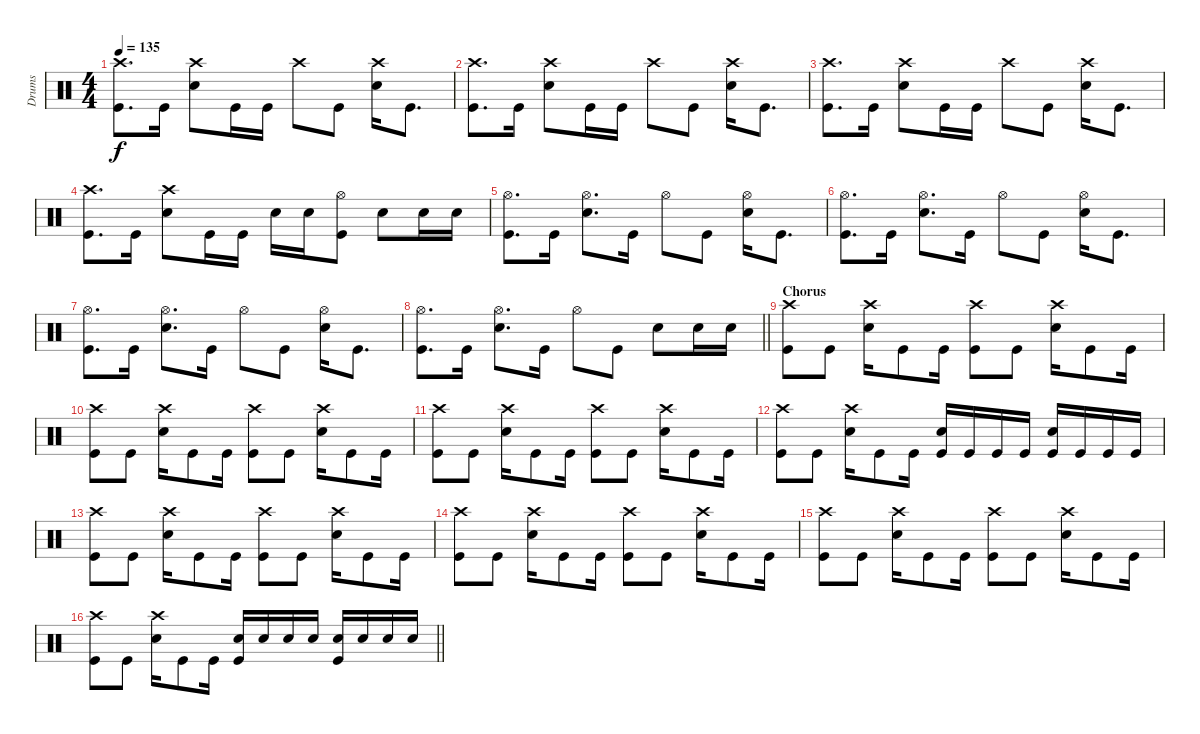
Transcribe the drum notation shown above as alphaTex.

\track ("Drums" "Drums") {instrument percussion}
\staff {score}
\articulation defaults
\ts (4 4)
\tempo 135
\clef neutral
\ks c
("Kick (hit)" "Crash high (hit)").8{d dy f} "Kick (hit)".16 ("Snare (hit) 2" "Crash high (hit)").8 "Kick (hit)".16 "Kick (hit)".16 "Crash high (hit)".8 "Kick (hit)".8 ("Snare (hit) 2" "Crash high (hit)").16 "Kick (hit)".8{d} |
("Kick (hit)" "Crash high (hit)").8{d} "Kick (hit)".16 ("Snare (hit) 2" "Crash high (hit)").8 "Kick (hit)".16 "Kick (hit)".16 "Crash high (hit)".8 "Kick (hit)".8 ("Snare (hit) 2" "Crash high (hit)").16 "Kick (hit)".8{d} |
("Kick (hit)" "Crash high (hit)").8{d} "Kick (hit)".16 ("Snare (hit) 2" "Crash high (hit)").8 "Kick (hit)".16 "Kick (hit)".16 "Crash high (hit)".8 "Kick (hit)".8 ("Snare (hit) 2" "Crash high (hit)").16 "Kick (hit)".8{d} |
("Kick (hit)" "Crash high (hit)").8{d} "Kick (hit)".16 ("Snare (hit) 2" "Crash high (hit)").8 "Kick (hit)".16 "Kick (hit)".16 "Snare (hit) 2".16 "Snare (hit) 2".16 ("Kick (hit)" "Hi-Hat (open)").8 "Snare (hit) 2".8 "Snare (hit) 2".16 "Snare (hit) 2".16 |
("Kick (hit)" "Hi-Hat (open)").8{d} "Kick (hit)".16 ("Snare (hit) 2" "Hi-Hat (open)").8{d} "Kick (hit)".16 "Hi-Hat (open)".8 "Kick (hit)".8 ("Snare (hit) 2" "Hi-Hat (open)").16 "Kick (hit)".8{d} |
("Kick (hit)" "Hi-Hat (open)").8{d} "Kick (hit)".16 ("Snare (hit) 2" "Hi-Hat (open)").8{d} "Kick (hit)".16 "Hi-Hat (open)".8 "Kick (hit)".8 ("Snare (hit) 2" "Hi-Hat (open)").16 "Kick (hit)".8{d} |
("Kick (hit)" "Hi-Hat (open)").8{d} "Kick (hit)".16 ("Snare (hit) 2" "Hi-Hat (open)").8{d} "Kick (hit)".16 "Hi-Hat (open)".8 "Kick (hit)".8 ("Snare (hit) 2" "Hi-Hat (open)").16 "Kick (hit)".8{d} |
\barLineRight lightlight
("Kick (hit)" "Hi-Hat (open)").8{d} "Kick (hit)".16 ("Snare (hit) 2" "Hi-Hat (open)").8{d} "Kick (hit)".16 "Hi-Hat (open)".8 "Kick (hit)".8 "Snare (hit) 2".8 "Snare (hit) 2".16 "Snare (hit) 2".16 |
\section ("" "Chorus")
("Kick (hit)" "Crash high (hit)").8 "Kick (hit)".8 ("Snare (hit) 2" "Crash high (hit)").16 "Kick (hit)".8 "Kick (hit)".16 ("Kick (hit)" "Crash high (hit)").8 "Kick (hit)".8 ("Snare (hit) 2" "Crash high (hit)").16 "Kick (hit)".8 "Kick (hit)".16 |
("Kick (hit)" "Crash high (hit)").8 "Kick (hit)".8 ("Snare (hit) 2" "Crash high (hit)").16 "Kick (hit)".8 "Kick (hit)".16 ("Kick (hit)" "Crash high (hit)").8 "Kick (hit)".8 ("Snare (hit) 2" "Crash high (hit)").16 "Kick (hit)".8 "Kick (hit)".16 |
("Kick (hit)" "Crash high (hit)").8 "Kick (hit)".8 ("Snare (hit) 2" "Crash high (hit)").16 "Kick (hit)".8 "Kick (hit)".16 ("Kick (hit)" "Crash high (hit)").8 "Kick (hit)".8 ("Snare (hit) 2" "Crash high (hit)").16 "Kick (hit)".8 "Kick (hit)".16 |
("Kick (hit)" "Crash high (hit)").8 "Kick (hit)".8 ("Snare (hit) 2" "Crash high (hit)").16 "Kick (hit)".8 "Kick (hit)".16 ("Kick (hit)" "Snare (hit) 2").16 "Kick (hit)".16 "Kick (hit)".16 "Kick (hit)".16 ("Kick (hit)" "Snare (hit) 2").16 "Kick (hit)".16 "Kick (hit)".16 "Kick (hit)".16 |
("Kick (hit)" "Crash high (hit)").8 "Kick (hit)".8 ("Snare (hit) 2" "Crash high (hit)").16 "Kick (hit)".8 "Kick (hit)".16 ("Kick (hit)" "Crash high (hit)").8 "Kick (hit)".8 ("Snare (hit) 2" "Crash high (hit)").16 "Kick (hit)".8 "Kick (hit)".16 |
("Kick (hit)" "Crash high (hit)").8 "Kick (hit)".8 ("Snare (hit) 2" "Crash high (hit)").16 "Kick (hit)".8 "Kick (hit)".16 ("Kick (hit)" "Crash high (hit)").8 "Kick (hit)".8 ("Snare (hit) 2" "Crash high (hit)").16 "Kick (hit)".8 "Kick (hit)".16 |
("Kick (hit)" "Crash high (hit)").8 "Kick (hit)".8 ("Snare (hit) 2" "Crash high (hit)").16 "Kick (hit)".8 "Kick (hit)".16 ("Kick (hit)" "Crash high (hit)").8 "Kick (hit)".8 ("Snare (hit) 2" "Crash high (hit)").16 "Kick (hit)".8 "Kick (hit)".16 |
\barLineRight lightlight
("Kick (hit)" "Crash high (hit)").8 "Kick (hit)".8 ("Snare (hit) 2" "Crash high (hit)").16 "Kick (hit)".8 "Kick (hit)".16 ("Kick (hit)" "Snare (hit) 2").16 "Snare (hit) 2".16 "Snare (hit) 2".16 "Snare (hit) 2".16 ("Kick (hit)" "Snare (hit) 2").16 "Snare (hit) 2".16 "Snare (hit) 2".16 "Snare (hit) 2".16
